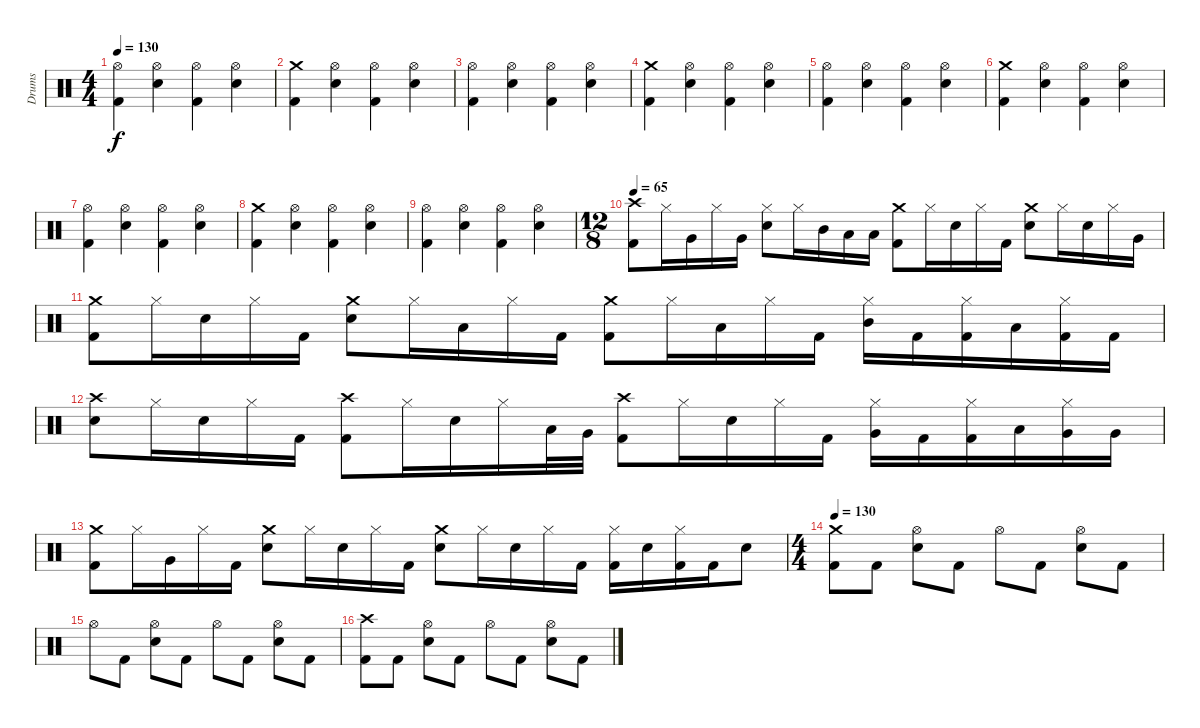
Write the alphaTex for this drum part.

\track ("Drums" "Drums") {instrument percussion}
\staff {score}
\articulation defaults
\ts (4 4)
\tempo 130
\clef neutral
\ks c
("Hi-Hat (open)" "Kick (hit) 2").4{dy f} ("Hi-Hat (open)" "Electric Snare (hit)").4 ("Hi-Hat (open)" "Kick (hit) 2").4 ("Hi-Hat (open)" "Electric Snare (hit)").4 |
("Crash medium (hit)" "Kick (hit) 2").4 ("Hi-Hat (open)" "Electric Snare (hit)").4 ("Hi-Hat (open)" "Kick (hit) 2").4 ("Hi-Hat (open)" "Electric Snare (hit)").4 |
("Hi-Hat (open)" "Kick (hit) 2").4 ("Hi-Hat (open)" "Electric Snare (hit)").4 ("Hi-Hat (open)" "Kick (hit) 2").4 ("Hi-Hat (open)" "Electric Snare (hit)").4 |
("Crash medium (hit)" "Kick (hit) 2").4 ("Hi-Hat (open)" "Electric Snare (hit)").4 ("Hi-Hat (open)" "Kick (hit) 2").4 ("Hi-Hat (open)" "Electric Snare (hit)").4 |
("Hi-Hat (open)" "Kick (hit) 2").4 ("Hi-Hat (open)" "Electric Snare (hit)").4 ("Hi-Hat (open)" "Kick (hit) 2").4 ("Hi-Hat (open)" "Electric Snare (hit)").4 |
("Crash medium (hit)" "Kick (hit) 2").4 ("Hi-Hat (open)" "Electric Snare (hit)").4 ("Hi-Hat (open)" "Kick (hit) 2").4 ("Hi-Hat (open)" "Electric Snare (hit)").4 |
("Hi-Hat (open)" "Kick (hit) 2").4 ("Hi-Hat (open)" "Electric Snare (hit)").4 ("Hi-Hat (open)" "Kick (hit) 2").4 ("Hi-Hat (open)" "Electric Snare (hit)").4 |
("Crash medium (hit)" "Kick (hit) 2").4 ("Hi-Hat (open)" "Electric Snare (hit)").4 ("Hi-Hat (open)" "Kick (hit) 2").4 ("Hi-Hat (open)" "Electric Snare (hit)").4 |
("Hi-Hat (open)" "Kick (hit) 2").4 ("Hi-Hat (open)" "Electric Snare (hit)").4 ("Hi-Hat (open)" "Kick (hit) 2").4 ("Hi-Hat (open)" "Electric Snare (hit)").4 |
\ts (12 8)
\tempo 65
("Crash high (hit)" "Kick (hit) 2").8 "Hi-Hat (closed)".16 "Very Low Tom (hit)".16 "Hi-Hat (closed)".16 "Very Low Tom (hit)".16 ("Hi-Hat (closed)" "Electric Snare (hit)").8 "Hi-Hat (closed)".16 "Mid Tom (hit)".16 "Low Tom (hit)".16 "Low Tom (hit)".16 ("Crash medium (hit)" "Kick (hit) 2").8 "Hi-Hat (closed)".16 "Electric Snare (hit)".16 "Hi-Hat (closed)".16 "Kick (hit) 2".16 ("Crash medium (hit)" "Electric Snare (hit)").8 "Hi-Hat (closed)".16 "Electric Snare (hit)".16 "Hi-Hat (closed)".16 "Very Low Tom (hit)".16 |
("Crash medium (hit)" "Kick (hit) 2").8 "Hi-Hat (closed)".16 "Electric Snare (hit)".16 "Hi-Hat (closed)".16 "Kick (hit) 2".16 ("Crash medium (hit)" "Electric Snare (hit)").8 "Hi-Hat (closed)".16 "Low Floor Tom (hit)".16 "Hi-Hat (closed)".16 "Kick (hit) 2".16 ("Crash medium (hit)" "Kick (hit) 2").8 "Hi-Hat (closed)".16 "Low Floor Tom (hit)".16 "Hi-Hat (closed)".16 "Kick (hit) 2".16 ("Hi-Hat (closed)" "Mid Tom (hit)").16 "Kick (hit) 2".16 ("Hi-Hat (closed)" "Kick (hit) 2").16 "Low Tom (hit)".16 ("Hi-Hat (closed)" "Kick (hit) 2").16 "Kick (hit) 2".16 |
("Crash high (hit)" "Electric Snare (hit)").8 "Hi-Hat (closed)".16 "Electric Snare (hit)".16 "Hi-Hat (closed)".16 "Kick (hit) 2".16 ("Crash high (hit)" "Kick (hit) 2").8 "Hi-Hat (closed)".16 "Electric Snare (hit)".16 "Hi-Hat (closed)".16 "Low Tom (hit)".32 "Very Low Tom (hit)".32 ("Crash high (hit)" "Kick (hit) 2").8 "Hi-Hat (closed)".16 "Electric Snare (hit)".16 "Hi-Hat (closed)".16 "Kick (hit) 2".16 ("Hi-Hat (closed)" "Very Low Tom (hit)").16 "Kick (hit) 2".16 ("Hi-Hat (closed)" "Kick (hit) 2").16 "Low Tom (hit)".16 ("Hi-Hat (closed)" "Very Low Tom (hit)").16 "Very Low Tom (hit)".16 |
("Crash medium (hit)" "Kick (hit) 2").8 "Hi-Hat (closed)".16 "Very Low Tom (hit)".16 "Hi-Hat (closed)".16 "Kick (hit) 2".16 ("Crash medium (hit)" "Electric Snare (hit)").8 "Hi-Hat (closed)".16 "Electric Snare (hit)".16 "Hi-Hat (closed)".16 "Kick (hit) 2".16 ("Crash medium (hit)" "Electric Snare (hit)").8 "Hi-Hat (closed)".16 "Electric Snare (hit)".16 "Hi-Hat (closed)".16 "Kick (hit) 2".16 ("Hi-Hat (closed)" "Kick (hit) 2").16 "Electric Snare (hit)".16 ("Hi-Hat (closed)" "Kick (hit) 2").16 "Kick (hit) 2".16 "Electric Snare (hit)".8 |
\ts (4 4)
\tempo 130
("Crash medium (hit)" "Kick (hit) 2").8 "Kick (hit) 2".8 ("Hi-Hat (open)" "Electric Snare (hit)").8 "Kick (hit) 2".8 "Hi-Hat (open)".8 "Kick (hit) 2".8 ("Hi-Hat (open)" "Electric Snare (hit)").8 "Kick (hit) 2".8 |
"Hi-Hat (open)".8 "Kick (hit) 2".8 ("Hi-Hat (open)" "Electric Snare (hit)").8 "Kick (hit) 2".8 "Hi-Hat (open)".8 "Kick (hit) 2".8 ("Hi-Hat (open)" "Electric Snare (hit)").8 "Kick (hit) 2".8 |
("Crash high (hit)" "Kick (hit) 2").8 "Kick (hit) 2".8 ("Hi-Hat (open)" "Electric Snare (hit)").8 "Kick (hit) 2".8 "Hi-Hat (open)".8 "Kick (hit) 2".8 ("Hi-Hat (open)" "Electric Snare (hit)").8 "Kick (hit) 2".8
